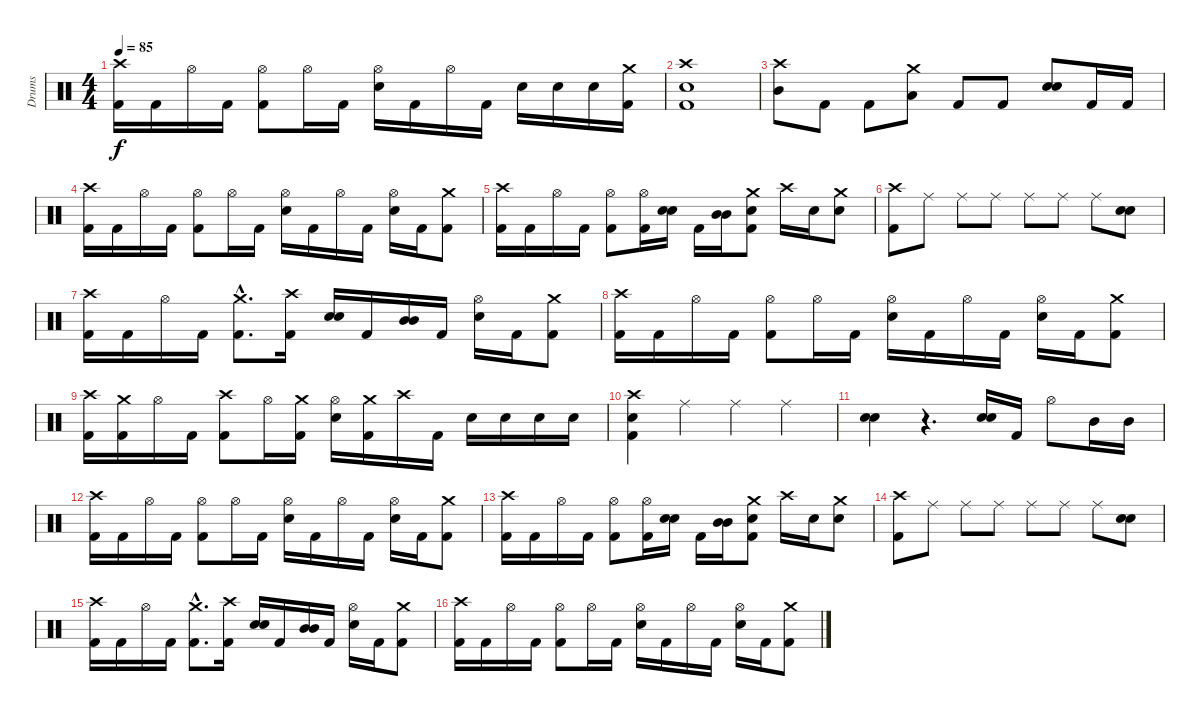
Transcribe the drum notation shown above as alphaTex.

\track ("Drums" "Drums") {instrument percussion}
\staff {score}
\articulation defaults
\ts (4 4)
\tempo 85
\clef neutral
\ks c
("Crash high (hit)" "Kick (hit) 2").16{dy f} "Kick (hit) 2".16 "Hi-Hat (open)".16 "Kick (hit) 2".16 ("Hi-Hat (open)" "Kick (hit) 2").8 "Hi-Hat (open)".16 "Kick (hit) 2".16 ("Hi-Hat (open)" "Snare (hit) 2").16 "Kick (hit) 2".16 "Hi-Hat (open)".16 "Kick (hit) 2".16 "Snare (hit) 2".16 "Snare (hit) 2".16 "Snare (hit) 2".16 ("Crash medium (hit)" "Kick (hit) 2").16 |
("Crash high (hit)" "Snare (hit) 2" "Kick (hit) 2").1 |
("Crash high (hit)" "Mid Tom (hit)").8 "Kick (hit) 2".8 "Kick (hit) 2".8 ("Crash medium (hit)" "Low Tom (hit)").8 "Kick (hit) 2".8 "Kick (hit) 2".8 ("Snare (hit) 2" "Snare (hit) 2").8{bd 240} "Kick (hit) 2".16 "Kick (hit) 2".16 |
("Crash high (hit)" "Kick (hit) 2").16 "Kick (hit) 2".16 "Hi-Hat (open)".16 "Kick (hit) 2".16 ("Hi-Hat (open)" "Kick (hit) 2").8 "Hi-Hat (open)".16 "Kick (hit) 2".16 ("Hi-Hat (open)" "Snare (hit) 2").16 "Kick (hit) 2".16 "Hi-Hat (open)".16 "Kick (hit) 2".16 ("Hi-Hat (open)" "Snare (hit) 2").16 "Kick (hit) 2".16 ("Crash medium (hit)" "Kick (hit) 2").8 |
("Crash high (hit)" "Kick (hit) 2").16 "Kick (hit) 2".16 "Hi-Hat (open)".16 "Kick (hit) 2".16 ("Hi-Hat (open)" "Kick (hit) 2").8 ("Hi-Hat (open)" "Kick (hit) 2").16 ("Snare (hit) 2" "Snare (hit) 2").16{bd 240} "Kick (hit) 2".16 ("Mid Tom (hit)" "Mid Tom (hit)").16{bd 240} ("Crash medium (hit)" "Snare (hit) 2" "Kick (hit) 2").8 "Crash high (hit)".16 "Snare (hit) 2".16 ("Crash medium (hit)" "Snare (hit) 2").8 |
("Crash high (hit)" "Kick (hit) 2").8 "Ride (middle)".8 "Ride (middle)".8 "Ride (middle)".8 "Ride (middle)".8 "Ride (middle)".8 "Ride (middle)".8 ("Snare (hit) 2" "Snare (hit) 2").8{bd 240} |
("Crash high (hit)" "Kick (hit) 2").16 "Kick (hit) 2".16 "Hi-Hat (open)".16 "Kick (hit) 2".16 ("Crash medium (hit)"{hac} "Kick (hit) 2"{hac}).8{d} ("Crash high (hit)" "Kick (hit) 2").16 ("Snare (hit) 2" "Snare (hit) 2").16{bd 240} "Kick (hit) 2".16 ("Mid Tom (hit)" "Mid Tom (hit)").16{bd 240} "Kick (hit) 2".16 ("Hi-Hat (open)" "Snare (hit) 2").16 "Kick (hit) 2".16 ("Crash medium (hit)" "Kick (hit) 2").8 |
("Crash high (hit)" "Kick (hit) 2").16 "Kick (hit) 2".16 "Hi-Hat (open)".16 "Kick (hit) 2".16 ("Hi-Hat (open)" "Kick (hit) 2").8 "Hi-Hat (open)".16 "Kick (hit) 2".16 ("Hi-Hat (open)" "Snare (hit) 2").16 "Kick (hit) 2".16 "Hi-Hat (open)".16 "Kick (hit) 2".16 ("Hi-Hat (open)" "Snare (hit) 2").16 "Kick (hit) 2".16 ("Crash medium (hit)" "Kick (hit) 2").8 |
("Crash high (hit)" "Kick (hit) 2").16 ("Crash medium (hit)" "Kick (hit) 2").16 "Hi-Hat (open)".16 "Kick (hit) 2".16 ("Crash high (hit)" "Kick (hit) 2").8 "Hi-Hat (open)".16 ("Crash medium (hit)" "Kick (hit) 2").16 ("Hi-Hat (open)" "Snare (hit) 2").16 ("Crash medium (hit)" "Kick (hit) 2").16 "Crash high (hit)".16 "Kick (hit) 2".16 "Snare (hit) 2".16 "Snare (hit) 2".16 "Snare (hit) 2".16 "Snare (hit) 2".16 |
("Crash high (hit)" "Snare (hit) 2" "Kick (hit) 2").4 "Ride (middle)".4 "Ride (middle)".4 "Ride (middle)".4 |
("Snare (hit) 2" "Snare (hit) 2").4{bd 240} r.4{d} ("Snare (hit) 2" "Snare (hit) 2").16{bd 240} "Kick (hit) 2".16 "Hi-Hat (open)".8 "Mid Tom (hit)".16 "Mid Tom (hit)".16 |
("Crash high (hit)" "Kick (hit) 2").16 "Kick (hit) 2".16 "Hi-Hat (open)".16 "Kick (hit) 2".16 ("Hi-Hat (open)" "Kick (hit) 2").8 "Hi-Hat (open)".16 "Kick (hit) 2".16 ("Hi-Hat (open)" "Snare (hit) 2").16 "Kick (hit) 2".16 "Hi-Hat (open)".16 "Kick (hit) 2".16 ("Hi-Hat (open)" "Snare (hit) 2").16 "Kick (hit) 2".16 ("Crash medium (hit)" "Kick (hit) 2").8 |
("Crash high (hit)" "Kick (hit) 2").16 "Kick (hit) 2".16 "Hi-Hat (open)".16 "Kick (hit) 2".16 ("Hi-Hat (open)" "Kick (hit) 2").8 ("Hi-Hat (open)" "Kick (hit) 2").16 ("Snare (hit) 2" "Snare (hit) 2").16{bd 240} "Kick (hit) 2".16 ("Mid Tom (hit)" "Mid Tom (hit)").16{bd 240} ("Crash medium (hit)" "Snare (hit) 2" "Kick (hit) 2").8 "Crash high (hit)".16 "Snare (hit) 2".16 ("Crash medium (hit)" "Snare (hit) 2").8 |
("Crash high (hit)" "Kick (hit) 2").8 "Ride (middle)".8 "Ride (middle)".8 "Ride (middle)".8 "Ride (middle)".8 "Ride (middle)".8 "Ride (middle)".8 ("Snare (hit) 2" "Snare (hit) 2").8{bd 240} |
("Crash high (hit)" "Kick (hit) 2").16 "Kick (hit) 2".16 "Hi-Hat (open)".16 "Kick (hit) 2".16 ("Crash medium (hit)"{hac} "Kick (hit) 2"{hac}).8{d} ("Crash high (hit)" "Kick (hit) 2").16 ("Snare (hit) 2" "Snare (hit) 2").16{bd 240} "Kick (hit) 2".16 ("Mid Tom (hit)" "Mid Tom (hit)").16{bd 240} "Kick (hit) 2".16 ("Hi-Hat (open)" "Snare (hit) 2").16 "Kick (hit) 2".16 ("Crash medium (hit)" "Kick (hit) 2").8 |
("Crash high (hit)" "Kick (hit) 2").16 "Kick (hit) 2".16 "Hi-Hat (open)".16 "Kick (hit) 2".16 ("Hi-Hat (open)" "Kick (hit) 2").8 "Hi-Hat (open)".16 "Kick (hit) 2".16 ("Hi-Hat (open)" "Snare (hit) 2").16 "Kick (hit) 2".16 "Hi-Hat (open)".16 "Kick (hit) 2".16 ("Hi-Hat (open)" "Snare (hit) 2").16 "Kick (hit) 2".16 ("Crash medium (hit)" "Kick (hit) 2").8
